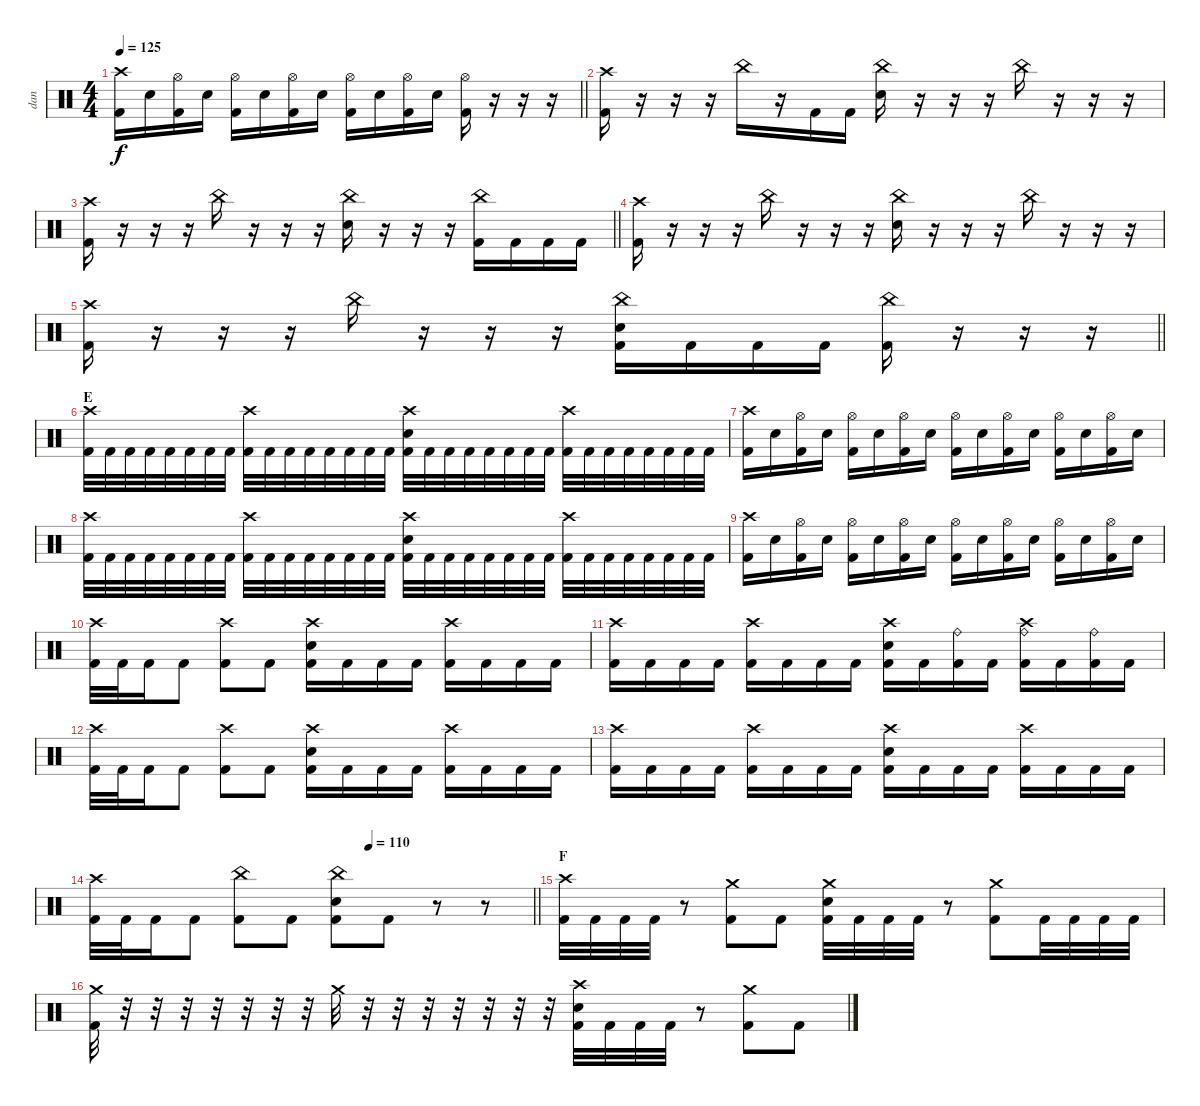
\track ("dan" "dan") {instrument percussion}
\staff {score}
\articulation defaults
\ts (4 4)
\tempo 125
\clef neutral
\barLineRight lightlight
\ks c
("Crash high (hit)" "Kick (hit) 2").16{dy f} "Electric Snare (hit)".16 ("Hi-Hat (open)" "Kick (hit) 2").16 "Electric Snare (hit)".16 ("Hi-Hat (open)" "Kick (hit) 2").16 "Electric Snare (hit)".16 ("Hi-Hat (open)" "Kick (hit) 2").16 "Electric Snare (hit)".16 ("Hi-Hat (open)" "Kick (hit) 2").16 "Electric Snare (hit)".16 ("Hi-Hat (open)" "Kick (hit) 2").16 "Electric Snare (hit)".16 ("Hi-Hat (open)" "Kick (hit) 2").16 r.16 r.16 r.16 |
("Crash high (hit)" "Kick (hit) 2").16 r.16 r.16 r.16 "China (hit)".16 r.16 "Kick (hit) 2".16 "Kick (hit) 2".16 ("China (hit)" "Electric Snare (hit)").16 r.16 r.16 r.16 "China (hit)".16 r.16 r.16 r.16 |
\barLineRight lightlight
("Crash high (hit)" "Kick (hit) 2").16 r.16 r.16 r.16 "China (hit)".16 r.16 r.16 r.16 ("China (hit)" "Electric Snare (hit)").16 r.16 r.16 r.16 ("China (hit)" "Kick (hit) 2").16 "Kick (hit) 2".16 "Kick (hit) 2".16 "Kick (hit) 2".16 |
("Crash high (hit)" "Kick (hit) 2").16 r.16 r.16 r.16 "China (hit)".16 r.16 r.16 r.16 ("China (hit)" "Electric Snare (hit)").16 r.16 r.16 r.16 "China (hit)".16 r.16 r.16 r.16 |
\barLineRight lightlight
("Crash high (hit)" "Kick (hit) 2").16 r.16 r.16 r.16 "China (hit)".16 r.16 r.16 r.16 ("China (hit)" "Electric Snare (hit)" "Kick (hit) 2").16 "Kick (hit) 2".16 "Kick (hit) 2".16 "Kick (hit) 2".16 ("China (hit)" "Kick (hit) 2").16 r.16 r.16 r.16 |
\section ("" "E")
("Crash high (hit)" "Kick (hit) 2").32 "Kick (hit) 2".32 "Kick (hit) 2".32 "Kick (hit) 2".32 "Kick (hit) 2".32 "Kick (hit) 2".32 "Kick (hit) 2".32 "Kick (hit) 2".32 ("Crash high (hit)" "Kick (hit) 2").32 "Kick (hit) 2".32 "Kick (hit) 2".32 "Kick (hit) 2".32 "Kick (hit) 2".32 "Kick (hit) 2".32 "Kick (hit) 2".32 "Kick (hit) 2".32 ("Crash high (hit)" "Electric Snare (hit)" "Kick (hit) 2").32 "Kick (hit) 2".32 "Kick (hit) 2".32 "Kick (hit) 2".32 "Kick (hit) 2".32 "Kick (hit) 2".32 "Kick (hit) 2".32 "Kick (hit) 2".32 ("Crash high (hit)" "Kick (hit) 2").32 "Kick (hit) 2".32 "Kick (hit) 2".32 "Kick (hit) 2".32 "Kick (hit) 2".32 "Kick (hit) 2".32 "Kick (hit) 2".32 "Kick (hit) 2".32 |
("Crash high (hit)" "Kick (hit) 2").16 "Electric Snare (hit)".16 ("Hi-Hat (open)" "Kick (hit) 2").16 "Electric Snare (hit)".16 ("Hi-Hat (open)" "Kick (hit) 2").16 "Electric Snare (hit)".16 ("Hi-Hat (open)" "Kick (hit) 2").16 "Electric Snare (hit)".16 ("Hi-Hat (open)" "Kick (hit) 2").16 "Electric Snare (hit)".16 ("Hi-Hat (open)" "Kick (hit) 2").16 "Electric Snare (hit)".16 ("Hi-Hat (open)" "Kick (hit) 2").16 "Electric Snare (hit)".16 ("Hi-Hat (open)" "Kick (hit) 2").16 "Electric Snare (hit)".16 |
("Crash high (hit)" "Kick (hit) 2").32 "Kick (hit) 2".32 "Kick (hit) 2".32 "Kick (hit) 2".32 "Kick (hit) 2".32 "Kick (hit) 2".32 "Kick (hit) 2".32 "Kick (hit) 2".32 ("Crash high (hit)" "Kick (hit) 2").32 "Kick (hit) 2".32 "Kick (hit) 2".32 "Kick (hit) 2".32 "Kick (hit) 2".32 "Kick (hit) 2".32 "Kick (hit) 2".32 "Kick (hit) 2".32 ("Crash high (hit)" "Electric Snare (hit)" "Kick (hit) 2").32 "Kick (hit) 2".32 "Kick (hit) 2".32 "Kick (hit) 2".32 "Kick (hit) 2".32 "Kick (hit) 2".32 "Kick (hit) 2".32 "Kick (hit) 2".32 ("Crash high (hit)" "Kick (hit) 2").32 "Kick (hit) 2".32 "Kick (hit) 2".32 "Kick (hit) 2".32 "Kick (hit) 2".32 "Kick (hit) 2".32 "Kick (hit) 2".32 "Kick (hit) 2".32 |
("Crash high (hit)" "Kick (hit) 2").16 "Electric Snare (hit)".16 ("Hi-Hat (open)" "Kick (hit) 2").16 "Electric Snare (hit)".16 ("Hi-Hat (open)" "Kick (hit) 2").16 "Electric Snare (hit)".16 ("Hi-Hat (open)" "Kick (hit) 2").16 "Electric Snare (hit)".16 ("Hi-Hat (open)" "Kick (hit) 2").16 "Electric Snare (hit)".16 ("Hi-Hat (open)" "Kick (hit) 2").16 "Electric Snare (hit)".16 ("Hi-Hat (open)" "Kick (hit) 2").16 "Electric Snare (hit)".16 ("Hi-Hat (open)" "Kick (hit) 2").16 "Electric Snare (hit)".16 |
("Crash high (hit)" "Kick (hit) 2").32 "Kick (hit) 2".32 "Kick (hit) 2".16 "Kick (hit) 2".8 ("Crash high (hit)" "Kick (hit) 2").8 "Kick (hit) 2".8 ("Crash high (hit)" "Electric Snare (hit)" "Kick (hit) 2").16 "Kick (hit) 2".16 "Kick (hit) 2".16 "Kick (hit) 2".16 ("Crash high (hit)" "Kick (hit) 2").16 "Kick (hit) 2".16 "Kick (hit) 2".16 "Kick (hit) 2".16 |
("Crash high (hit)" "Kick (hit) 2").16 "Kick (hit) 2".16 "Kick (hit) 2".16 "Kick (hit) 2".16 ("Crash high (hit)" "Kick (hit) 2").16 "Kick (hit) 2".16 "Kick (hit) 2".16 "Kick (hit) 2".16 ("Crash high (hit)" "Electric Snare (hit)" "Kick (hit) 2").16 "Kick (hit) 2".16 ("Ride (bell)" "Kick (hit) 2").16 "Kick (hit) 2".16 ("Crash high (hit)" "Ride (bell)" "Kick (hit) 2").16 "Kick (hit) 2".16 ("Ride (bell)" "Kick (hit) 2").16 "Kick (hit) 2".16 |
("Crash high (hit)" "Kick (hit) 2").32 "Kick (hit) 2".32 "Kick (hit) 2".16 "Kick (hit) 2".8 ("Crash high (hit)" "Kick (hit) 2").8 "Kick (hit) 2".8 ("Crash high (hit)" "Electric Snare (hit)" "Kick (hit) 2").16 "Kick (hit) 2".16 "Kick (hit) 2".16 "Kick (hit) 2".16 ("Crash high (hit)" "Kick (hit) 2").16 "Kick (hit) 2".16 "Kick (hit) 2".16 "Kick (hit) 2".16 |
("Crash high (hit)" "Kick (hit) 2").16 "Kick (hit) 2".16 "Kick (hit) 2".16 "Kick (hit) 2".16 ("Crash high (hit)" "Kick (hit) 2").16 "Kick (hit) 2".16 "Kick (hit) 2".16 "Kick (hit) 2".16 ("Crash high (hit)" "Electric Snare (hit)" "Kick (hit) 2").16 "Kick (hit) 2".16 "Kick (hit) 2".16 "Kick (hit) 2".16 ("Crash high (hit)" "Kick (hit) 2").16 "Kick (hit) 2".16 "Kick (hit) 2".16 "Kick (hit) 2".16 |
\tempo (110 0.625)
\barLineRight lightlight
("Crash high (hit)" "Kick (hit) 2").32 "Kick (hit) 2".32 "Kick (hit) 2".16 "Kick (hit) 2".8 ("China (hit)" "Kick (hit) 2").8 "Kick (hit) 2".8 ("China (hit)" "Electric Snare (hit)" "Kick (hit) 2").8 "Kick (hit) 2".8 r.8 r.8 |
\section ("" "F")
("Crash high (hit)" "Kick (hit) 2").32 "Kick (hit) 2".32 "Kick (hit) 2".32 "Kick (hit) 2".32 r.8 ("Crash medium (hit)" "Kick (hit) 2").8 "Kick (hit) 2".8 ("Crash medium (hit)" "Electric Snare (hit)" "Kick (hit) 2").32 "Kick (hit) 2".32 "Kick (hit) 2".32 "Kick (hit) 2".32 r.8 ("Crash medium (hit)" "Kick (hit) 2").8 "Kick (hit) 2".32 "Kick (hit) 2".32 "Kick (hit) 2".32 "Kick (hit) 2".32 |
("Crash medium (hit)" "Kick (hit) 2").32 r.32 r.32 r.32 r.32 r.32 r.32 r.32 "Crash medium (hit)".32 r.32 r.32 r.32 r.32 r.32 r.32 r.32 ("Crash high (hit)" "Electric Snare (hit)" "Kick (hit) 2").32 "Kick (hit) 2".32 "Kick (hit) 2".32 "Kick (hit) 2".32 r.8 ("Crash medium (hit)" "Kick (hit) 2").8 "Kick (hit) 2".8
